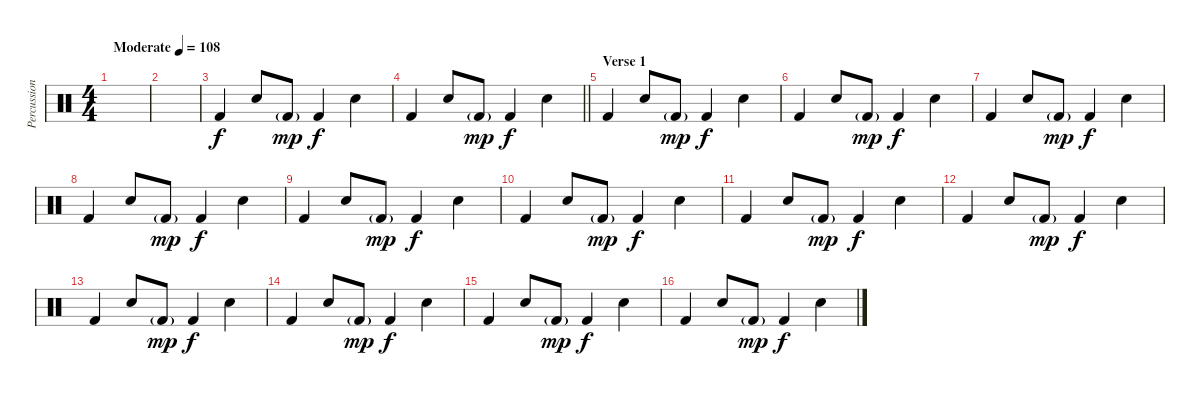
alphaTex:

\track ("Percussion" "Percussion") {instrument percussion}
\staff {score}
\articulation defaults
\ts (4 4)
\tempo (108 "Moderate")
\clef neutral
\ks c
|
|
"Kick (hit) 2".4 "Snare (hit) 2".8 "Kick (hit) 2"{g}.8{dy mp} "Kick (hit) 2".4{dy f} "Snare (hit) 2".4 |
\barLineRight lightlight "Kick (hit) 2".4 "Snare (hit) 2".8 "Kick (hit) 2"{g}.8{dy mp} "Kick (hit) 2".4{dy f} "Snare (hit) 2".4
|
\section ("" "Verse 1")
"Kick (hit) 2".4 "Snare (hit) 2".8 "Kick (hit) 2"{g}.8{dy mp} "Kick (hit) 2".4{dy f} "Snare (hit) 2".4 |
"Kick (hit) 2".4 "Snare (hit) 2".8 "Kick (hit) 2"{g}.8{dy mp} "Kick (hit) 2".4{dy f} "Snare (hit) 2".4 |
"Kick (hit) 2".4 "Snare (hit) 2".8 "Kick (hit) 2"{g}.8{dy mp} "Kick (hit) 2".4{dy f} "Snare (hit) 2".4 |
"Kick (hit) 2".4 "Snare (hit) 2".8 "Kick (hit) 2"{g}.8{dy mp} "Kick (hit) 2".4{dy f} "Snare (hit) 2".4 |
"Kick (hit) 2".4 "Snare (hit) 2".8 "Kick (hit) 2"{g}.8{dy mp} "Kick (hit) 2".4{dy f} "Snare (hit) 2".4 |
"Kick (hit) 2".4 "Snare (hit) 2".8 "Kick (hit) 2"{g}.8{dy mp} "Kick (hit) 2".4{dy f} "Snare (hit) 2".4 |
"Kick (hit) 2".4 "Snare (hit) 2".8 "Kick (hit) 2"{g}.8{dy mp} "Kick (hit) 2".4{dy f} "Snare (hit) 2".4 |
"Kick (hit) 2".4 "Snare (hit) 2".8 "Kick (hit) 2"{g}.8{dy mp} "Kick (hit) 2".4{dy f} "Snare (hit) 2".4 |
"Kick (hit) 2".4 "Snare (hit) 2".8 "Kick (hit) 2"{g}.8{dy mp} "Kick (hit) 2".4{dy f} "Snare (hit) 2".4 |
"Kick (hit) 2".4 "Snare (hit) 2".8 "Kick (hit) 2"{g}.8{dy mp} "Kick (hit) 2".4{dy f} "Snare (hit) 2".4 |
"Kick (hit) 2".4 "Snare (hit) 2".8 "Kick (hit) 2"{g}.8{dy mp} "Kick (hit) 2".4{dy f} "Snare (hit) 2".4 |
"Kick (hit) 2".4 "Snare (hit) 2".8 "Kick (hit) 2"{g}.8{dy mp} "Kick (hit) 2".4{dy f} "Snare (hit) 2".4
